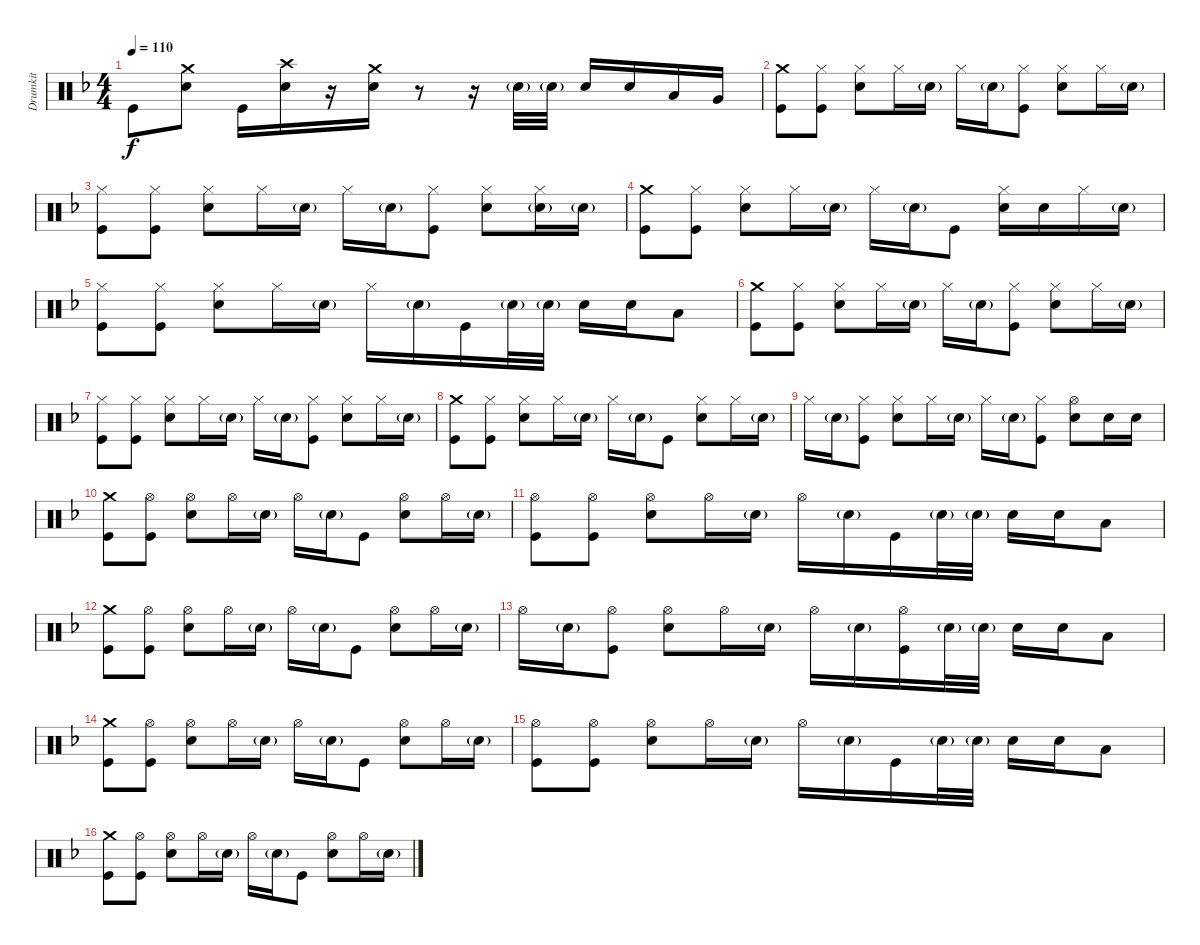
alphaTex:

\track ("Drumkit" "Drumkit") {instrument percussion}
\staff {score}
\articulation defaults
\ts (4 4)
\tempo 110
\clef neutral
\ks dminor "Kick (hit)".8{dy f}
("Snare (hit) 2" "Crash medium (hit)").8 "Kick (hit)".16 ("Snare (hit) 2" "Crash high (hit)").16 r.16 ("Snare (hit) 2" "Crash medium (hit)").16 r.8 r.16 "Snare (hit) 2"{g}.32 "Snare (hit) 2"{g}.32 "Snare (hit) 2".16 "Snare (hit) 2".16 "Low Tom (hit)".16 "Very Low Tom (hit)".16 |
("Kick (hit)" "Crash medium (hit)").8 ("Hi-Hat (closed)" "Kick (hit)").8 ("Snare (hit) 2" "Hi-Hat (closed)").8 "Hi-Hat (closed)".16 "Snare (hit) 2"{g}.16 "Hi-Hat (closed)".16 "Snare (hit) 2"{g}.16 ("Kick (hit)" "Hi-Hat (closed)").8 ("Snare (hit) 2" "Hi-Hat (closed)").8 "Hi-Hat (closed)".16 "Snare (hit) 2"{g}.16 |
("Hi-Hat (closed)" "Kick (hit)").8 ("Hi-Hat (closed)" "Kick (hit)").8 ("Snare (hit) 2" "Hi-Hat (closed)").8 "Hi-Hat (closed)".16 "Snare (hit) 2"{g}.16 "Hi-Hat (closed)".16 "Snare (hit) 2"{g}.16 ("Kick (hit)" "Hi-Hat (closed)").8 ("Snare (hit) 2" "Hi-Hat (closed)").8 ("Hi-Hat (closed)" "Snare (hit) 2"{g}).16 "Snare (hit) 2"{g}.16 |
("Kick (hit)" "Crash medium (hit)").8 ("Hi-Hat (closed)" "Kick (hit)").8 ("Snare (hit) 2" "Hi-Hat (closed)").8 "Hi-Hat (closed)".16 "Snare (hit) 2"{g}.16 "Hi-Hat (closed)".16 "Snare (hit) 2"{g}.16 "Kick (hit)".8 ("Snare (hit) 2" "Hi-Hat (closed)").16 "Snare (hit) 2".16 "Hi-Hat (closed)".16 "Snare (hit) 2"{g}.16 |
("Hi-Hat (closed)" "Kick (hit)").8 ("Hi-Hat (closed)" "Kick (hit)").8 ("Snare (hit) 2" "Hi-Hat (closed)").8 "Hi-Hat (closed)".16 "Snare (hit) 2"{g}.16 "Hi-Hat (closed)".16 "Snare (hit) 2"{g}.16 "Kick (hit)".16 "Snare (hit) 2"{g}.32 "Snare (hit) 2"{g}.32 "Snare (hit) 2".16 "Snare (hit) 2".16 "Low Tom (hit)".8 |
("Kick (hit)" "Crash medium (hit)").8 ("Hi-Hat (closed)" "Kick (hit)").8 ("Snare (hit) 2" "Hi-Hat (closed)").8 "Hi-Hat (closed)".16 "Snare (hit) 2"{g}.16 "Hi-Hat (closed)".16 "Snare (hit) 2"{g}.16 ("Kick (hit)" "Hi-Hat (closed)").8 ("Snare (hit) 2" "Hi-Hat (closed)").8 "Hi-Hat (closed)".16 "Snare (hit) 2"{g}.16 |
("Hi-Hat (closed)" "Kick (hit)").8 ("Hi-Hat (closed)" "Kick (hit)").8 ("Snare (hit) 2" "Hi-Hat (closed)").8 "Hi-Hat (closed)".16 "Snare (hit) 2"{g}.16 "Hi-Hat (closed)".16 "Snare (hit) 2"{g}.16 ("Kick (hit)" "Hi-Hat (closed)").8 ("Snare (hit) 2" "Hi-Hat (closed)").8 "Hi-Hat (closed)".16 "Snare (hit) 2"{g}.16 |
("Kick (hit)" "Crash medium (hit)").8 ("Hi-Hat (closed)" "Kick (hit)").8 ("Snare (hit) 2" "Hi-Hat (closed)").8 "Hi-Hat (closed)".16 "Snare (hit) 2"{g}.16 "Hi-Hat (closed)".16 "Snare (hit) 2"{g}.16 "Kick (hit)".8 ("Snare (hit) 2" "Hi-Hat (closed)").8 "Hi-Hat (closed)".16 "Snare (hit) 2"{g}.16 |
"Hi-Hat (closed)".16 "Snare (hit) 2"{g}.16 ("Kick (hit)" "Hi-Hat (closed)").8 ("Snare (hit) 2" "Hi-Hat (closed)").8 "Hi-Hat (closed)".16 "Snare (hit) 2"{g}.16 "Hi-Hat (closed)".16 "Snare (hit) 2"{g}.16 ("Kick (hit)" "Hi-Hat (closed)").8 ("Snare (hit) 2" "Hi-Hat (open)").8 "Snare (hit) 2".16 "Snare (hit) 2".16 |
("Kick (hit)" "Crash medium (hit)").8 ("Hi-Hat (open)" "Kick (hit)").8 ("Snare (hit) 2" "Hi-Hat (open)").8 "Hi-Hat (open)".16 "Snare (hit) 2"{g}.16 "Hi-Hat (open)".16 "Snare (hit) 2"{g}.16 "Kick (hit)".8 ("Snare (hit) 2" "Hi-Hat (open)").8 "Hi-Hat (open)".16 "Snare (hit) 2"{g}.16 |
("Hi-Hat (open)" "Kick (hit)").8 ("Hi-Hat (open)" "Kick (hit)").8 ("Snare (hit) 2" "Hi-Hat (open)").8 "Hi-Hat (open)".16 "Snare (hit) 2"{g}.16 "Hi-Hat (open)".16 "Snare (hit) 2"{g}.16 "Kick (hit)".16 "Snare (hit) 2"{g}.32 "Snare (hit) 2"{g}.32 "Snare (hit) 2".16 "Snare (hit) 2".16 "Low Tom (hit)".8 |
("Kick (hit)" "Crash medium (hit)").8 ("Hi-Hat (open)" "Kick (hit)").8 ("Snare (hit) 2" "Hi-Hat (open)").8 "Hi-Hat (open)".16 "Snare (hit) 2"{g}.16 "Hi-Hat (open)".16 "Snare (hit) 2"{g}.16 "Kick (hit)".8 ("Snare (hit) 2" "Hi-Hat (open)").8 "Hi-Hat (open)".16 "Snare (hit) 2"{g}.16 |
"Hi-Hat (open)".16 "Snare (hit) 2"{g}.16 ("Kick (hit)" "Hi-Hat (open)").8 ("Snare (hit) 2" "Hi-Hat (open)").8 "Hi-Hat (open)".16 "Snare (hit) 2"{g}.16 "Hi-Hat (open)".16 "Snare (hit) 2"{g}.16 ("Kick (hit)" "Hi-Hat (open)").16 "Snare (hit) 2"{g}.32 "Snare (hit) 2"{g}.32 "Snare (hit) 2".16 "Snare (hit) 2".16 "Low Tom (hit)".8 |
("Kick (hit)" "Crash medium (hit)").8 ("Hi-Hat (open)" "Kick (hit)").8 ("Snare (hit) 2" "Hi-Hat (open)").8 "Hi-Hat (open)".16 "Snare (hit) 2"{g}.16 "Hi-Hat (open)".16 "Snare (hit) 2"{g}.16 "Kick (hit)".8 ("Snare (hit) 2" "Hi-Hat (open)").8 "Hi-Hat (open)".16 "Snare (hit) 2"{g}.16 |
("Hi-Hat (open)" "Kick (hit)").8 ("Hi-Hat (open)" "Kick (hit)").8 ("Snare (hit) 2" "Hi-Hat (open)").8 "Hi-Hat (open)".16 "Snare (hit) 2"{g}.16 "Hi-Hat (open)".16 "Snare (hit) 2"{g}.16 "Kick (hit)".16 "Snare (hit) 2"{g}.32 "Snare (hit) 2"{g}.32 "Snare (hit) 2".16 "Snare (hit) 2".16 "Low Tom (hit)".8 |
("Kick (hit)" "Crash medium (hit)").8 ("Hi-Hat (open)" "Kick (hit)").8 ("Snare (hit) 2" "Hi-Hat (open)").8 "Hi-Hat (open)".16 "Snare (hit) 2"{g}.16 "Hi-Hat (open)".16 "Snare (hit) 2"{g}.16 "Kick (hit)".8 ("Snare (hit) 2" "Hi-Hat (open)").8 "Hi-Hat (open)".16 "Snare (hit) 2"{g}.16
